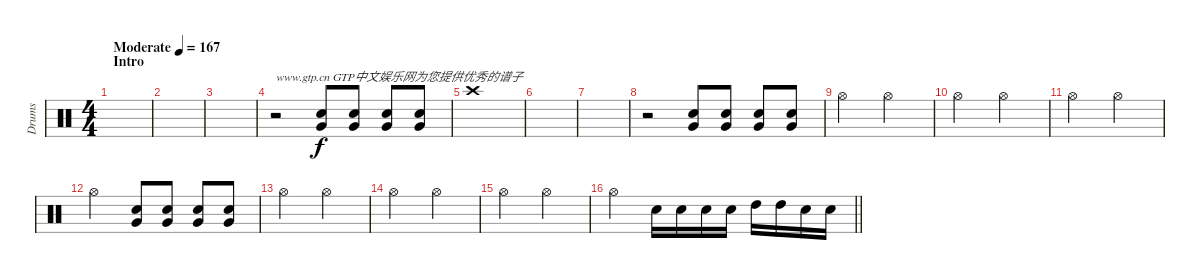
\track ("Drums" "Drums") {instrument percussion}
\staff {score}
\articulation defaults
\ts (4 4)
\section ("" "Intro")
\tempo (167 "Moderate")
\clef neutral
\ks c
|
|
|
r.2{txt "www.gtp.cn GTP中文娱乐网为您提供优秀的谱子"} ("Very Low Tom (hit)" "Snare (hit) 2").8 ("Very Low Tom (hit)" "Snare (hit) 2").8 ("Very Low Tom (hit)" "Snare (hit) 2").8 ("Very Low Tom (hit)" "Snare (hit) 2").8 |
"Crash high (hit)".1 |
|
|
r.2 ("Very Low Tom (hit)" "Snare (hit) 2").8 ("Very Low Tom (hit)" "Snare (hit) 2").8 ("Very Low Tom (hit)" "Snare (hit) 2").8 ("Very Low Tom (hit)" "Snare (hit) 2").8 |
"Hi-Hat (open)".2 "Hi-Hat (open)".2 |
"Hi-Hat (open)".2 "Hi-Hat (open)".2 |
"Hi-Hat (open)".2 "Hi-Hat (open)".2 |
"Hi-Hat (open)".2 ("Very Low Tom (hit)" "Snare (hit) 2").8 ("Very Low Tom (hit)" "Snare (hit) 2").8 ("Very Low Tom (hit)" "Snare (hit) 2").8 ("Very Low Tom (hit)" "Snare (hit) 2").8 |
"Hi-Hat (open)".2 "Hi-Hat (open)".2 |
"Hi-Hat (open)".2 "Hi-Hat (open)".2 |
"Hi-Hat (open)".2 "Hi-Hat (open)".2 |
\barLineRight lightlight "Hi-Hat (open)".2 "Snare (hit) 2".16 "Snare (hit) 2".16 "Snare (hit) 2".16 "Snare (hit) 2".16 "High Tom (hit)".16 "High Tom (hit)".16 "Snare (hit) 2".16 "Snare (hit) 2".16
